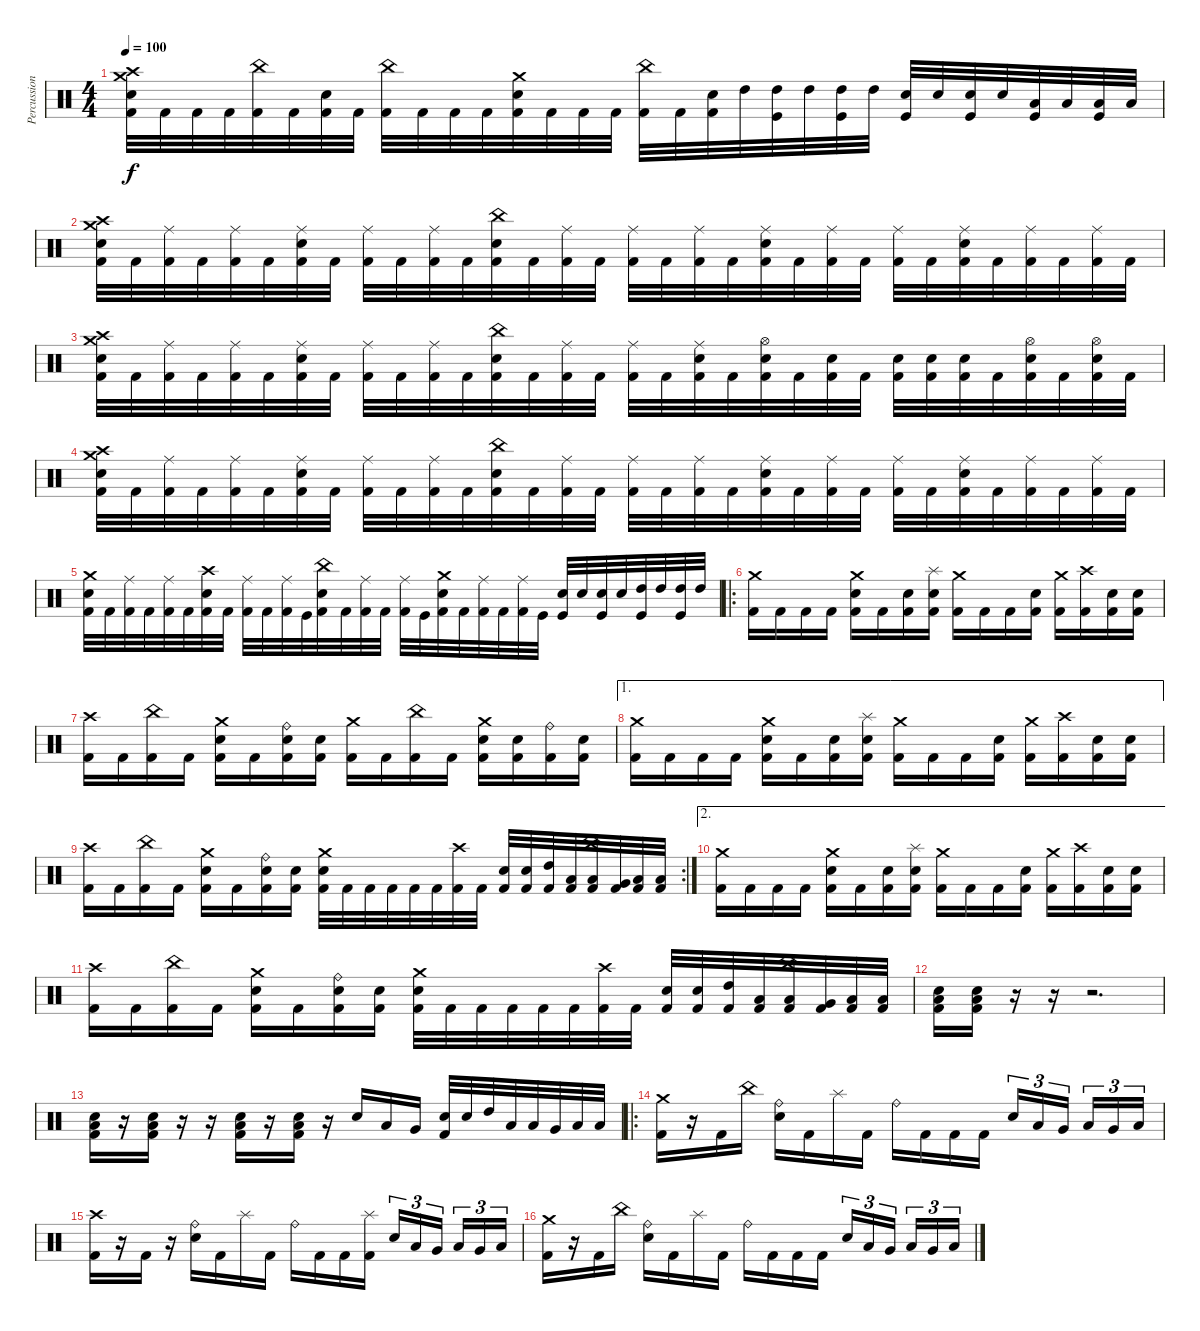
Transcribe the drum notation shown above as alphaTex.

\track ("Percussion" "Percussion") {mute instrument percussion}
\staff {score}
\articulation defaults
\ts (4 4)
\tempo 100
\clef neutral
\ks c
("Crash high (hit)" "Crash medium (hit)" "Electric Snare (hit)" "Kick (hit) 2").32{dy f} "Kick (hit) 2".32 "Kick (hit) 2".32 "Kick (hit) 2".32 ("China (hit)" "Kick (hit) 2").32 "Kick (hit) 2".32 ("Electric Snare (hit)" "Kick (hit) 2").32 "Kick (hit) 2".32 ("China (hit)" "Kick (hit) 2").32 "Kick (hit) 2".32 "Kick (hit) 2".32 "Kick (hit) 2".32 ("Crash medium (hit)" "Electric Snare (hit)" "Kick (hit) 2").32 "Kick (hit) 2".32 "Kick (hit) 2".32 "Kick (hit) 2".32 ("China (hit)" "Kick (hit) 2").32 "Kick (hit) 2".32 ("Electric Snare (hit)" "Kick (hit) 2").32 "High Tom (hit)".32 ("High Tom (hit)" "Kick (hit)").32 "High Tom (hit)".32 ("High Tom (hit)" "Kick (hit)").32 "High Tom (hit)".32 ("Electric Snare (hit)" "Kick (hit)").32 "Electric Snare (hit)".32 ("Electric Snare (hit)" "Kick (hit)").32 "Electric Snare (hit)".32 ("Low Tom (hit)" "Kick (hit)").32 "Low Tom (hit)".32 ("Low Tom (hit)" "Kick (hit)").32 "Low Tom (hit)".32 |
("Crash high (hit)" "Crash medium (hit)" "Electric Snare (hit)" "Kick (hit) 2").32 "Kick (hit) 2".32 ("Ride (middle)" "Kick (hit) 2").32 "Kick (hit) 2".32 ("Ride (middle)" "Kick (hit) 2").32 "Kick (hit) 2".32 ("Ride (middle)" "Electric Snare (hit)" "Kick (hit) 2").32 "Kick (hit) 2".32 ("Ride (middle)" "Kick (hit) 2").32 "Kick (hit) 2".32 ("Ride (middle)" "Kick (hit) 2").32 "Kick (hit) 2".32 ("China (hit)" "Electric Snare (hit)" "Kick (hit) 2").32 "Kick (hit) 2".32 ("Ride (middle)" "Kick (hit) 2").32 "Kick (hit) 2".32 ("Ride (middle)" "Kick (hit) 2").32 "Kick (hit) 2".32 ("Ride (middle)" "Kick (hit) 2").32 "Kick (hit) 2".32 ("Ride (middle)" "Electric Snare (hit)" "Kick (hit) 2").32 "Kick (hit) 2".32 ("Ride (middle)" "Kick (hit) 2").32 "Kick (hit) 2".32 ("Ride (middle)" "Kick (hit) 2").32 "Kick (hit) 2".32 ("Ride (middle)" "Electric Snare (hit)" "Kick (hit) 2").32 "Kick (hit) 2".32 ("Ride (middle)" "Kick (hit) 2").32 "Kick (hit) 2".32 ("Ride (middle)" "Kick (hit) 2").32 "Kick (hit) 2".32 |
("Crash high (hit)" "Crash medium (hit)" "Electric Snare (hit)" "Kick (hit) 2").32 "Kick (hit) 2".32 ("Ride (middle)" "Kick (hit) 2").32 "Kick (hit) 2".32 ("Ride (middle)" "Kick (hit) 2").32 "Kick (hit) 2".32 ("Ride (middle)" "Electric Snare (hit)" "Kick (hit) 2").32 "Kick (hit) 2".32 ("Ride (middle)" "Kick (hit) 2").32 "Kick (hit) 2".32 ("Ride (middle)" "Kick (hit) 2").32 "Kick (hit) 2".32 ("China (hit)" "Electric Snare (hit)" "Kick (hit) 2").32 "Kick (hit) 2".32 ("Ride (middle)" "Kick (hit) 2").32 "Kick (hit) 2".32 ("Ride (middle)" "Kick (hit) 2").32 "Kick (hit) 2".32 ("Ride (middle)" "Electric Snare (hit)" "Kick (hit) 2").32 "Kick (hit) 2".32 ("Hi-Hat (open)" "Electric Snare (hit)" "Kick (hit) 2").32 "Kick (hit) 2".32 ("Electric Snare (hit)" "Kick (hit) 2").32 "Kick (hit) 2".32 ("Electric Snare (hit)" "Kick (hit) 2").32 ("Electric Snare (hit)" "Kick (hit) 2").32 ("Electric Snare (hit)" "Kick (hit) 2").32 "Kick (hit) 2".32 ("Hi-Hat (open)" "Electric Snare (hit)" "Kick (hit) 2").32 "Kick (hit) 2".32 ("Hi-Hat (open)" "Electric Snare (hit)" "Kick (hit) 2").32 "Kick (hit) 2".32 |
("Crash high (hit)" "Crash medium (hit)" "Electric Snare (hit)" "Kick (hit) 2").32 "Kick (hit) 2".32 ("Ride (middle)" "Kick (hit) 2").32 "Kick (hit) 2".32 ("Ride (middle)" "Kick (hit) 2").32 "Kick (hit) 2".32 ("Ride (middle)" "Electric Snare (hit)" "Kick (hit) 2").32 "Kick (hit) 2".32 ("Ride (middle)" "Kick (hit) 2").32 "Kick (hit) 2".32 ("Ride (middle)" "Kick (hit) 2").32 "Kick (hit) 2".32 ("China (hit)" "Electric Snare (hit)" "Kick (hit) 2").32 "Kick (hit) 2".32 ("Ride (middle)" "Kick (hit) 2").32 "Kick (hit) 2".32 ("Ride (middle)" "Kick (hit) 2").32 "Kick (hit) 2".32 ("Ride (middle)" "Kick (hit) 2").32 "Kick (hit) 2".32 ("Ride (middle)" "Electric Snare (hit)" "Kick (hit) 2").32 "Kick (hit) 2".32 ("Ride (middle)" "Kick (hit) 2").32 "Kick (hit) 2".32 ("Ride (middle)" "Kick (hit) 2").32 "Kick (hit) 2".32 ("Ride (middle)" "Electric Snare (hit)" "Kick (hit) 2").32 "Kick (hit) 2".32 ("Ride (middle)" "Kick (hit) 2").32 "Kick (hit) 2".32 ("Ride (middle)" "Kick (hit) 2").32 "Kick (hit) 2".32 |
("Crash medium (hit)" "Electric Snare (hit)" "Kick (hit) 2").32 "Kick (hit) 2".32 ("Ride (middle)" "Kick (hit) 2").32 "Kick (hit) 2".32 ("Ride (middle)" "Kick (hit) 2").32 "Kick (hit) 2".32 ("Crash high (hit)" "Electric Snare (hit)" "Kick (hit) 2").32 "Kick (hit) 2".32 ("Ride (middle)" "Kick (hit) 2").32 "Kick (hit) 2".32 ("Ride (middle)" "Kick (hit) 2").32 "Kick (hit)".32 ("China (hit)" "Electric Snare (hit)" "Kick (hit) 2").32 "Kick (hit) 2".32 ("Ride (middle)" "Kick (hit) 2").32 "Kick (hit) 2".32 ("Ride (middle)" "Kick (hit) 2").32 "Kick (hit)".32 ("Crash medium (hit)" "Electric Snare (hit)" "Kick (hit) 2").32 "Kick (hit) 2".32 ("Ride (middle)" "Kick (hit) 2").32 "Kick (hit) 2".32 ("Ride (middle)" "Kick (hit) 2").32 "Kick (hit)".32 ("Electric Snare (hit)" "Kick (hit)").32 "Electric Snare (hit)".32 ("Electric Snare (hit)" "Kick (hit)").32 "Electric Snare (hit)".32 ("High Tom (hit)" "Kick (hit)").32 "High Tom (hit)".32 ("High Tom (hit)" "Kick (hit)").32 "High Tom (hit)".32 |
\ro
("Crash medium (hit)" "Kick (hit) 2").16 "Kick (hit) 2".16 "Kick (hit) 2".16 "Kick (hit) 2".16 ("Crash medium (hit)" "Electric Snare (hit)" "Kick (hit) 2").16 "Kick (hit) 2".16 ("Electric Snare (hit)" "Kick (hit) 2").16 ("Splash (hit)" "Electric Snare (hit)" "Kick (hit) 2").16 ("Crash medium (hit)" "Kick (hit) 2").16 "Kick (hit) 2".16 "Kick (hit) 2".16 ("Electric Snare (hit)" "Kick (hit) 2").16 ("Crash medium (hit)" "Kick (hit) 2").16 ("Crash high (hit)" "Kick (hit) 2").16 ("Electric Snare (hit)" "Kick (hit) 2").16 ("Electric Snare (hit)" "Kick (hit) 2").16 |
("Crash high (hit)" "Kick (hit) 2").16 "Kick (hit) 2".16 ("China (hit)" "Kick (hit) 2").16 "Kick (hit) 2".16 ("Crash medium (hit)" "Electric Snare (hit)" "Kick (hit) 2").16 "Kick (hit) 2".16 ("Ride (bell)" "Electric Snare (hit)" "Kick (hit) 2").16 ("Electric Snare (hit)" "Kick (hit) 2").16 ("Crash medium (hit)" "Kick (hit) 2").16 "Kick (hit) 2".16 ("China (hit)" "Kick (hit) 2").16 "Kick (hit) 2".16 ("Crash medium (hit)" "Electric Snare (hit)" "Kick (hit) 2").16 ("Electric Snare (hit)" "Kick (hit) 2").16 ("Ride (bell)" "Kick (hit) 2").16 ("Electric Snare (hit)" "Kick (hit) 2").16 |
\ae 1
("Crash medium (hit)" "Kick (hit) 2").16 "Kick (hit) 2".16 "Kick (hit) 2".16 "Kick (hit) 2".16 ("Crash medium (hit)" "Electric Snare (hit)" "Kick (hit) 2").16 "Kick (hit) 2".16 ("Electric Snare (hit)" "Kick (hit) 2").16 ("Splash (hit)" "Electric Snare (hit)" "Kick (hit) 2").16 ("Crash medium (hit)" "Kick (hit) 2").16 "Kick (hit) 2".16 "Kick (hit) 2".16 ("Electric Snare (hit)" "Kick (hit) 2").16 ("Crash medium (hit)" "Kick (hit) 2").16 ("Crash high (hit)" "Kick (hit) 2").16 ("Electric Snare (hit)" "Kick (hit) 2").16 ("Electric Snare (hit)" "Kick (hit) 2").16 |
\rc 2
("Crash high (hit)" "Kick (hit) 2").16 "Kick (hit) 2".16 ("China (hit)" "Kick (hit) 2").16 "Kick (hit) 2".16 ("Crash medium (hit)" "Electric Snare (hit)" "Kick (hit) 2").16 "Kick (hit) 2".16 ("Ride (bell)" "Electric Snare (hit)" "Kick (hit) 2").16 ("Electric Snare (hit)" "Kick (hit) 2").16 ("Crash medium (hit)" "Electric Snare (hit)" "Kick (hit) 2").32 "Kick (hit) 2".32 "Kick (hit) 2".32 "Kick (hit) 2".32 "Kick (hit) 2".32 "Kick (hit) 2".32 ("Crash high (hit)" "Kick (hit) 2").32 "Kick (hit) 2".32 ("Electric Snare (hit)" "Kick (hit) 2").32 ("Electric Snare (hit)" "Kick (hit) 2").32 ("High Tom (hit)" "Kick (hit) 2").32 ("Low Tom (hit)" "Kick (hit) 2").32 ("China (hit)" "Low Tom (hit)" "Kick (hit) 2").32 ("Very Low Tom (hit)" "Kick (hit) 2").32 ("Low Floor Tom (hit)" "Kick (hit) 2").32 ("Low Floor Tom (hit)" "Kick (hit) 2").32 |
\ae 2
("Crash medium (hit)" "Kick (hit) 2").16 "Kick (hit) 2".16 "Kick (hit) 2".16 "Kick (hit) 2".16 ("Crash medium (hit)" "Electric Snare (hit)" "Kick (hit) 2").16 "Kick (hit) 2".16 ("Electric Snare (hit)" "Kick (hit) 2").16 ("Splash (hit)" "Electric Snare (hit)" "Kick (hit) 2").16 ("Crash medium (hit)" "Kick (hit) 2").16 "Kick (hit) 2".16 "Kick (hit) 2".16 ("Electric Snare (hit)" "Kick (hit) 2").16 ("Crash medium (hit)" "Kick (hit) 2").16 ("Crash high (hit)" "Kick (hit) 2").16 ("Electric Snare (hit)" "Kick (hit) 2").16 ("Electric Snare (hit)" "Kick (hit) 2").16 |
("Crash high (hit)" "Kick (hit) 2").16 "Kick (hit) 2".16 ("China (hit)" "Kick (hit) 2").16 "Kick (hit) 2".16 ("Crash medium (hit)" "Electric Snare (hit)" "Kick (hit) 2").16 "Kick (hit) 2".16 ("Ride (bell)" "Electric Snare (hit)" "Kick (hit) 2").16 ("Electric Snare (hit)" "Kick (hit) 2").16 ("Crash medium (hit)" "Electric Snare (hit)" "Kick (hit) 2").32 "Kick (hit) 2".32 "Kick (hit) 2".32 "Kick (hit) 2".32 "Kick (hit) 2".32 "Kick (hit) 2".32 ("Crash high (hit)" "Kick (hit) 2").32 "Kick (hit) 2".32 ("Electric Snare (hit)" "Kick (hit) 2").32 ("Electric Snare (hit)" "Kick (hit) 2").32 ("High Tom (hit)" "Kick (hit) 2").32 ("Low Tom (hit)" "Kick (hit) 2").32 ("China (hit)" "Low Tom (hit)" "Kick (hit) 2").32 ("Very Low Tom (hit)" "Kick (hit) 2").32 ("Low Floor Tom (hit)" "Kick (hit) 2").32 ("Low Floor Tom (hit)" "Kick (hit) 2").32 |
("Low Tom (hit)" "Electric Snare (hit)" "Kick (hit) 2").16 ("Low Tom (hit)" "Electric Snare (hit)" "Kick (hit) 2").16 r.16 r.16 r.2{d} |
("Low Tom (hit)" "Electric Snare (hit)" "Kick (hit) 2").16 r.16 ("Low Tom (hit)" "Electric Snare (hit)" "Kick (hit) 2").16 r.16 r.16 ("Low Tom (hit)" "Electric Snare (hit)" "Kick (hit) 2").16 r.16 ("Low Tom (hit)" "Electric Snare (hit)" "Kick (hit) 2").16 r.16 "Electric Snare (hit)".16 "Low Tom (hit)".16 "Very Low Tom (hit)".16 ("Electric Snare (hit)" "Kick (hit) 2").32 "Electric Snare (hit)".32 "High Tom (hit)".32 "Low Tom (hit)".32 "Low Tom (hit)".32 "Very Low Tom (hit)".32 "Low Floor Tom (hit)".32 "Low Floor Tom (hit)".32 |
\ro
("Crash medium (hit)" "Kick (hit) 2").16 r.16 "Kick (hit) 2".16 "China (hit)".16 ("Ride (bell)" "Electric Snare (hit)").16 "Kick (hit) 2".16 "Splash (hit)".16 "Kick (hit) 2".16 "Ride (bell)".16 "Kick (hit) 2".16 "Kick (hit) 2".16 "Kick (hit) 2".16 "Electric Snare (hit)".16{tu (3 2)} "Low Tom (hit)".16{tu (3 2)} "Very Low Tom (hit)".16{tu (3 2) beam splitsecondary} "Low Tom (hit)".16{tu (3 2)} "Very Low Tom (hit)".16{tu (3 2)} "Low Floor Tom (hit)".16{tu (3 2)} |
("Crash high (hit)" "Kick (hit) 2").16 r.16 "Kick (hit) 2".16 r.16 ("Ride (bell)" "Electric Snare (hit)").16 "Kick (hit) 2".16 "Splash (hit)".16 "Kick (hit) 2".16 "Ride (bell)".16 "Kick (hit) 2".16 "Kick (hit) 2".16 ("Splash (hit)" "Kick (hit) 2").16 "Electric Snare (hit)".16{tu (3 2)} "Low Tom (hit)".16{tu (3 2)} "Very Low Tom (hit)".16{tu (3 2) beam splitsecondary} "Low Tom (hit)".16{tu (3 2)} "Very Low Tom (hit)".16{tu (3 2)} "Low Floor Tom (hit)".16{tu (3 2)} |
("Crash medium (hit)" "Kick (hit) 2").16 r.16 "Kick (hit) 2".16 "China (hit)".16 ("Ride (bell)" "Electric Snare (hit)").16 "Kick (hit) 2".16 "Splash (hit)".16 "Kick (hit) 2".16 "Ride (bell)".16 "Kick (hit) 2".16 "Kick (hit) 2".16 "Kick (hit) 2".16 "Electric Snare (hit)".16{tu (3 2)} "Low Tom (hit)".16{tu (3 2)} "Very Low Tom (hit)".16{tu (3 2) beam splitsecondary} "Low Tom (hit)".16{tu (3 2)} "Very Low Tom (hit)".16{tu (3 2)} "Low Floor Tom (hit)".16{tu (3 2)}
